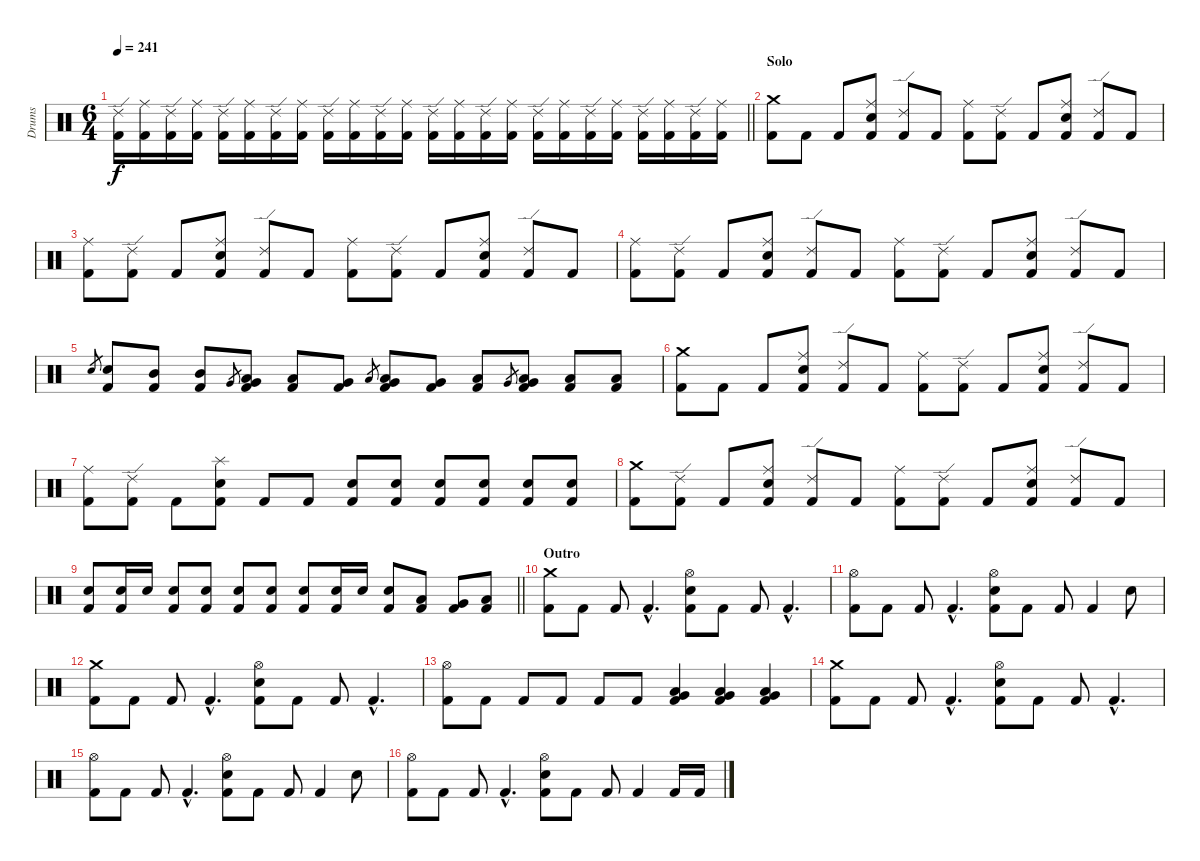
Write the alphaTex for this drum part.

\track ("Drums" "Drums") {instrument percussion}
\staff {score}
\articulation defaults
\ts (6 4)
\tempo 241
\clef neutral
\barLineRight lightlight
\ks c
("Ride (edge) 2" "Kick (hit) 2").16{dy f} ("Ride (middle)" "Kick (hit) 2").16 ("Ride (edge) 2" "Kick (hit) 2").16 ("Ride (middle)" "Kick (hit) 2").16 ("Ride (edge) 2" "Kick (hit) 2").16 ("Ride (middle)" "Kick (hit) 2").16 ("Ride (edge) 2" "Kick (hit) 2").16 ("Ride (middle)" "Kick (hit) 2").16 ("Ride (edge) 2" "Kick (hit) 2").16 ("Ride (middle)" "Kick (hit) 2").16 ("Ride (edge) 2" "Kick (hit) 2").16 ("Ride (middle)" "Kick (hit) 2").16 ("Ride (edge) 2" "Kick (hit) 2").16 ("Ride (middle)" "Kick (hit) 2").16 ("Ride (edge) 2" "Kick (hit) 2").16 ("Ride (middle)" "Kick (hit) 2").16 ("Ride (edge) 2" "Kick (hit) 2").16 ("Ride (middle)" "Kick (hit) 2").16 ("Ride (edge) 2" "Kick (hit) 2").16 ("Ride (middle)" "Kick (hit) 2").16 ("Ride (edge) 2" "Kick (hit) 2").16 ("Ride (middle)" "Kick (hit) 2").16 ("Ride (edge) 2" "Kick (hit) 2").16 ("Ride (middle)" "Kick (hit) 2").16 |
\section ("" "Solo")
("Crash medium (hit)" "Kick (hit) 2").8 "Kick (hit) 2".8 "Kick (hit) 2".8 ("Ride (middle)" "Electric Snare (hit)" "Kick (hit) 2").8 ("Ride (edge) 2" "Kick (hit) 2").8 "Kick (hit) 2".8 ("Ride (middle)" "Kick (hit) 2").8 ("Ride (edge) 2" "Kick (hit) 2").8 "Kick (hit) 2".8 ("Ride (middle)" "Electric Snare (hit)" "Kick (hit) 2").8 ("Ride (edge) 2" "Kick (hit) 2").8 "Kick (hit) 2".8 |
("Ride (middle)" "Kick (hit) 2").8 ("Ride (edge) 2" "Kick (hit) 2").8 "Kick (hit) 2".8 ("Ride (middle)" "Electric Snare (hit)" "Kick (hit) 2").8 ("Ride (edge) 2" "Kick (hit) 2").8 "Kick (hit) 2".8 ("Ride (middle)" "Kick (hit) 2").8 ("Ride (edge) 2" "Kick (hit) 2").8 "Kick (hit) 2".8 ("Ride (middle)" "Electric Snare (hit)" "Kick (hit) 2").8 ("Ride (edge) 2" "Kick (hit) 2").8 "Kick (hit) 2".8 |
("Ride (middle)" "Kick (hit) 2").8 ("Ride (edge) 2" "Kick (hit) 2").8 "Kick (hit) 2".8 ("Ride (middle)" "Electric Snare (hit)" "Kick (hit) 2").8 ("Ride (edge) 2" "Kick (hit) 2").8 "Kick (hit) 2".8 ("Ride (middle)" "Kick (hit) 2").8 ("Ride (edge) 2" "Kick (hit) 2").8 "Kick (hit) 2".8 ("Ride (middle)" "Electric Snare (hit)" "Kick (hit) 2").8 ("Ride (edge) 2" "Kick (hit) 2").8 "Kick (hit) 2".8 |
"Electric Snare (hit)".8{gr} ("Electric Snare (hit)" "Kick (hit) 2").8 ("Mid Tom (hit)" "Kick (hit) 2").8 ("Mid Tom (hit)" "Kick (hit) 2").8 "Very Low Tom (hit)".8{gr} ("Very Low Tom (hit)" "Low Tom (hit)" "Kick (hit) 2").8 ("Low Tom (hit)" "Kick (hit) 2").8 ("Very Low Tom (hit)" "Kick (hit) 2").8 "Low Floor Tom (hit)".8{gr} ("Low Floor Tom (hit)" "Very Low Tom (hit)" "Kick (hit) 2").8 ("Very Low Tom (hit)" "Kick (hit) 2").8 ("Low Floor Tom (hit)" "Kick (hit) 2").8 "Very Low Tom (hit)".8{gr} ("Very Low Tom (hit)" "Low Floor Tom (hit)" "Kick (hit) 2").8 ("Low Floor Tom (hit)" "Kick (hit) 2").8 ("Low Floor Tom (hit)" "Kick (hit) 2").8 |
("Crash medium (hit)" "Kick (hit) 2").8 "Kick (hit) 2".8 "Kick (hit) 2".8 ("Ride (middle)" "Electric Snare (hit)" "Kick (hit) 2").8 ("Ride (edge) 2" "Kick (hit) 2").8 "Kick (hit) 2".8 ("Ride (middle)" "Kick (hit) 2").8 ("Ride (edge) 2" "Kick (hit) 2").8 "Kick (hit) 2".8 ("Ride (middle)" "Electric Snare (hit)" "Kick (hit) 2").8 ("Ride (edge) 2" "Kick (hit) 2").8 "Kick (hit) 2".8 |
("Ride (middle)" "Kick (hit) 2").8 ("Ride (edge) 2" "Kick (hit) 2").8 "Kick (hit) 2".8 ("Splash (hit)" "Electric Snare (hit)" "Kick (hit) 2").8 "Kick (hit) 2".8 "Kick (hit) 2".8 ("Electric Snare (hit)" "Kick (hit) 2").8 ("Electric Snare (hit)" "Kick (hit) 2").8 ("Electric Snare (hit)" "Kick (hit) 2").8 ("Electric Snare (hit)" "Kick (hit) 2").8 ("Electric Snare (hit)" "Kick (hit) 2").8 ("Electric Snare (hit)" "Kick (hit) 2").8 |
("Crash medium (hit)" "Kick (hit) 2").8 ("Ride (edge) 2" "Kick (hit) 2").8 "Kick (hit) 2".8 ("Ride (middle)" "Electric Snare (hit)" "Kick (hit) 2").8 ("Ride (edge) 2" "Kick (hit) 2").8 "Kick (hit) 2".8 ("Ride (middle)" "Kick (hit) 2").8 ("Ride (edge) 2" "Kick (hit) 2").8 "Kick (hit) 2".8 ("Ride (middle)" "Electric Snare (hit)" "Kick (hit) 2").8 ("Ride (edge) 2" "Kick (hit) 2").8 "Kick (hit) 2".8 |
\barLineRight lightlight
("Electric Snare (hit)" "Kick (hit) 2").8 ("Electric Snare (hit)" "Kick (hit) 2").16 "Electric Snare (hit)".16 ("Electric Snare (hit)" "Kick (hit) 2").8 ("Electric Snare (hit)" "Kick (hit) 2").8 ("Electric Snare (hit)" "Kick (hit) 2").8 ("Electric Snare (hit)" "Kick (hit) 2").8 ("Electric Snare (hit)" "Kick (hit) 2").8 ("Electric Snare (hit)" "Kick (hit) 2").16 "Electric Snare (hit)".16 ("Electric Snare (hit)" "Kick (hit) 2").8 ("Low Tom (hit)" "Kick (hit) 2").8 ("Very Low Tom (hit)" "Kick (hit) 2").8 ("Low Floor Tom (hit)" "Kick (hit) 2").8 |
\section ("" "Outro")
("Crash medium (hit)" "Kick (hit) 2").8 "Kick (hit) 2".8 "Kick (hit) 2".8 "Kick (hit) 2"{hac}.4{d} ("Hi-Hat (open)" "Electric Snare (hit)" "Kick (hit) 2").8 "Kick (hit) 2".8 "Kick (hit) 2".8 "Kick (hit) 2"{hac}.4{d} |
("Hi-Hat (open)" "Kick (hit) 2").8 "Kick (hit) 2".8 "Kick (hit) 2".8 "Kick (hit) 2"{hac}.4{d} ("Hi-Hat (open)" "Electric Snare (hit)" "Kick (hit) 2").8 "Kick (hit) 2".8 "Kick (hit) 2".8 "Kick (hit) 2".4 "Electric Snare (hit)".8 |
("Crash medium (hit)" "Kick (hit) 2").8 "Kick (hit) 2".8 "Kick (hit) 2".8 "Kick (hit) 2"{hac}.4{d} ("Hi-Hat (open)" "Electric Snare (hit)" "Kick (hit) 2").8 "Kick (hit) 2".8 "Kick (hit) 2".8 "Kick (hit) 2"{hac}.4{d} |
("Hi-Hat (open)" "Kick (hit) 2").8 "Kick (hit) 2".8 "Kick (hit) 2".8 "Kick (hit) 2".8 "Kick (hit) 2".8 "Kick (hit) 2".8 ("Very Low Tom (hit)" "Low Floor Tom (hit)" "Kick (hit) 2").4 ("Very Low Tom (hit)" "Low Floor Tom (hit)" "Kick (hit) 2").4 ("Very Low Tom (hit)" "Low Floor Tom (hit)" "Kick (hit) 2").4 |
("Crash medium (hit)" "Kick (hit) 2").8 "Kick (hit) 2".8 "Kick (hit) 2".8 "Kick (hit) 2"{hac}.4{d} ("Hi-Hat (open)" "Electric Snare (hit)" "Kick (hit) 2").8 "Kick (hit) 2".8 "Kick (hit) 2".8 "Kick (hit) 2"{hac}.4{d} |
("Hi-Hat (open)" "Kick (hit) 2").8 "Kick (hit) 2".8 "Kick (hit) 2".8 "Kick (hit) 2"{hac}.4{d} ("Hi-Hat (open)" "Electric Snare (hit)" "Kick (hit) 2").8 "Kick (hit) 2".8 "Kick (hit) 2".8 "Kick (hit) 2".4 "Electric Snare (hit)".8 |
("Hi-Hat (open)" "Kick (hit) 2").8 "Kick (hit) 2".8 "Kick (hit) 2".8 "Kick (hit) 2"{hac}.4{d} ("Hi-Hat (open)" "Electric Snare (hit)" "Kick (hit) 2").8 "Kick (hit) 2".8 "Kick (hit) 2".8 "Kick (hit) 2".4 "Kick (hit) 2".16 "Kick (hit) 2".16
